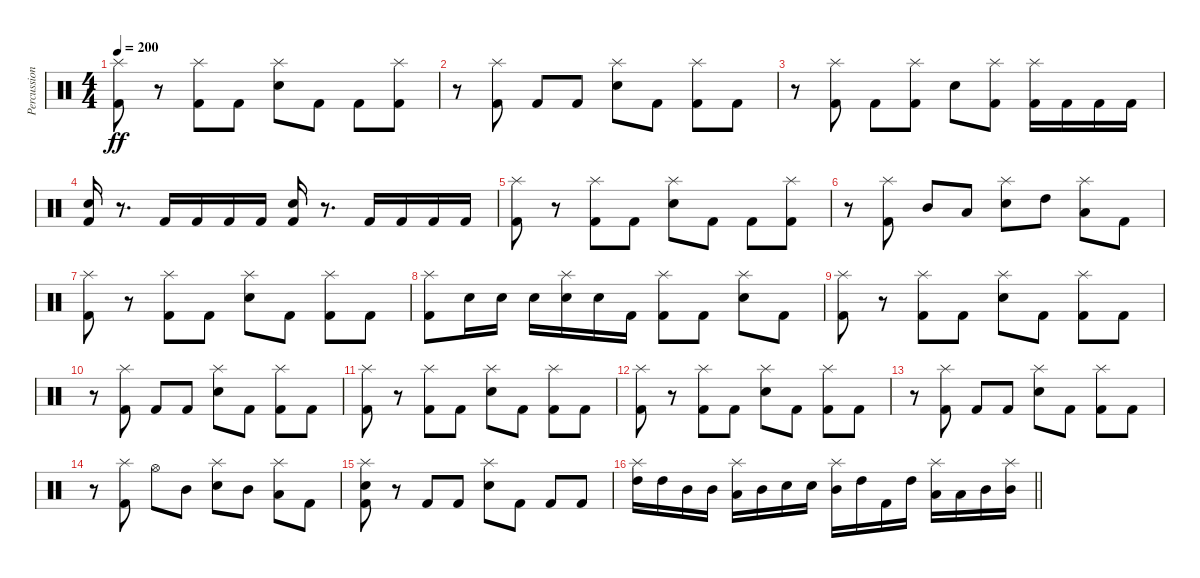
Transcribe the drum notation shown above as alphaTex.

\track ("Percussion" "Percussion") {instrument percussion}
\staff {score}
\articulation defaults
\ts (4 4)
\tempo 200
\clef neutral
\ks c
("Splash (hit)" "Kick (hit) 2").8{dy ff} r.8 ("Splash (hit)" "Kick (hit) 2").8 "Kick (hit) 2".8 ("Splash (hit)" "Electric Snare (hit)").8 "Kick (hit) 2".8 "Kick (hit) 2".8 ("Splash (hit)" "Kick (hit) 2").8 |
r.8 ("Splash (hit)" "Kick (hit) 2").8 "Kick (hit) 2".8 "Kick (hit) 2".8 ("Splash (hit)" "Electric Snare (hit)").8 "Kick (hit) 2".8 ("Splash (hit)" "Kick (hit) 2").8 "Kick (hit) 2".8 |
r.8 ("Splash (hit)" "Kick (hit) 2").8 "Kick (hit) 2".8 ("Splash (hit)" "Kick (hit) 2").8 "Electric Snare (hit)".8 ("Splash (hit)" "Kick (hit) 2").8 ("Splash (hit)" "Kick (hit) 2").16 "Kick (hit) 2".16 "Kick (hit) 2".16 "Kick (hit) 2".16 |
("Electric Snare (hit)" "Kick (hit) 2").16 r.8{d} "Kick (hit) 2".16 "Kick (hit) 2".16 "Kick (hit) 2".16 "Kick (hit) 2".16 ("Electric Snare (hit)" "Kick (hit) 2").16 r.8{d} "Kick (hit) 2".16 "Kick (hit) 2".16 "Kick (hit) 2".16 "Kick (hit) 2".16 |
("Splash (hit)" "Kick (hit) 2").8 r.8 ("Splash (hit)" "Kick (hit) 2").8 "Kick (hit) 2".8 ("Splash (hit)" "Electric Snare (hit)").8 "Kick (hit) 2".8 "Kick (hit) 2".8 ("Splash (hit)" "Kick (hit) 2").8 |
r.8 ("Splash (hit)" "Kick (hit) 2").8 "Mid Tom (hit)".8 "Low Tom (hit)".8 ("Splash (hit)" "Electric Snare (hit)").8 "High Tom (hit)".8 ("Splash (hit)" "Low Tom (hit)").8 "Kick (hit) 2".8 |
("Splash (hit)" "Kick (hit) 2").8 r.8 ("Splash (hit)" "Kick (hit) 2").8 "Kick (hit) 2".8 ("Splash (hit)" "Electric Snare (hit)").8 "Kick (hit) 2".8 ("Splash (hit)" "Kick (hit) 2").8 "Kick (hit) 2".8 |
("Splash (hit)" "Kick (hit) 2").8 "Electric Snare (hit)".16 "Electric Snare (hit)".16 "Electric Snare (hit)".16 ("Splash (hit)" "Electric Snare (hit)").16 "Electric Snare (hit)".16 "Kick (hit) 2".16 ("Splash (hit)" "Kick (hit) 2").8 "Kick (hit) 2".8 ("Splash (hit)" "Electric Snare (hit)").8 "Kick (hit) 2".8 |
("Splash (hit)" "Kick (hit) 2").8 r.8 ("Splash (hit)" "Kick (hit) 2").8 "Kick (hit) 2".8 ("Splash (hit)" "Electric Snare (hit)").8 "Kick (hit) 2".8 ("Splash (hit)" "Kick (hit) 2").8 "Kick (hit) 2".8 |
r.8 ("Splash (hit)" "Kick (hit) 2").8 "Kick (hit) 2".8 "Kick (hit) 2".8 ("Splash (hit)" "Electric Snare (hit)").8 "Kick (hit) 2".8 ("Splash (hit)" "Kick (hit) 2").8 "Kick (hit) 2".8 |
("Splash (hit)" "Kick (hit) 2").8 r.8 ("Splash (hit)" "Kick (hit) 2").8 "Kick (hit) 2".8 ("Splash (hit)" "Electric Snare (hit)").8 "Kick (hit) 2".8 ("Splash (hit)" "Kick (hit) 2").8 "Kick (hit) 2".8 |
("Splash (hit)" "Kick (hit) 2").8 r.8 ("Splash (hit)" "Kick (hit) 2").8 "Kick (hit) 2".8 ("Splash (hit)" "Electric Snare (hit)").8 "Kick (hit) 2".8 ("Splash (hit)" "Kick (hit) 2").8 "Kick (hit) 2".8 |
r.8 ("Splash (hit)" "Kick (hit) 2").8 "Kick (hit) 2".8 "Kick (hit) 2".8 ("Splash (hit)" "Electric Snare (hit)").8 "Kick (hit) 2".8 ("Splash (hit)" "Kick (hit) 2").8 "Kick (hit) 2".8 |
r.8 ("Splash (hit)" "Kick (hit) 2").8 "Hi-Hat (open)".8 "Mid Tom (hit)".8 ("Splash (hit)" "Electric Snare (hit)").8 "Mid Tom (hit)".8 ("Splash (hit)" "Low Tom (hit)").8 "Kick (hit) 2".8 |
("Splash (hit)" "Electric Snare (hit)" "Kick (hit) 2").8 r.8 "Kick (hit) 2".8 "Kick (hit) 2".8 ("Splash (hit)" "Electric Snare (hit)").8 "Kick (hit) 2".8 "Kick (hit) 2".8 "Kick (hit) 2".8 |
\barLineRight lightlight
("Splash (hit)" "High Tom (hit)").16 "High Tom (hit)".16 "Mid Tom (hit)".16 "Mid Tom (hit)".16 ("Splash (hit)" "Low Tom (hit)").16 "Mid Tom (hit)".16 "Electric Snare (hit)".16 "Electric Snare (hit)".16 ("Splash (hit)" "Mid Tom (hit)").16 "High Tom (hit)".16 "Kick (hit) 2".16 "High Tom (hit)".16 ("Splash (hit)" "Low Tom (hit)").16 "Low Tom (hit)".16 "Mid Tom (hit)".16 ("Splash (hit)" "Mid Tom (hit)").16
